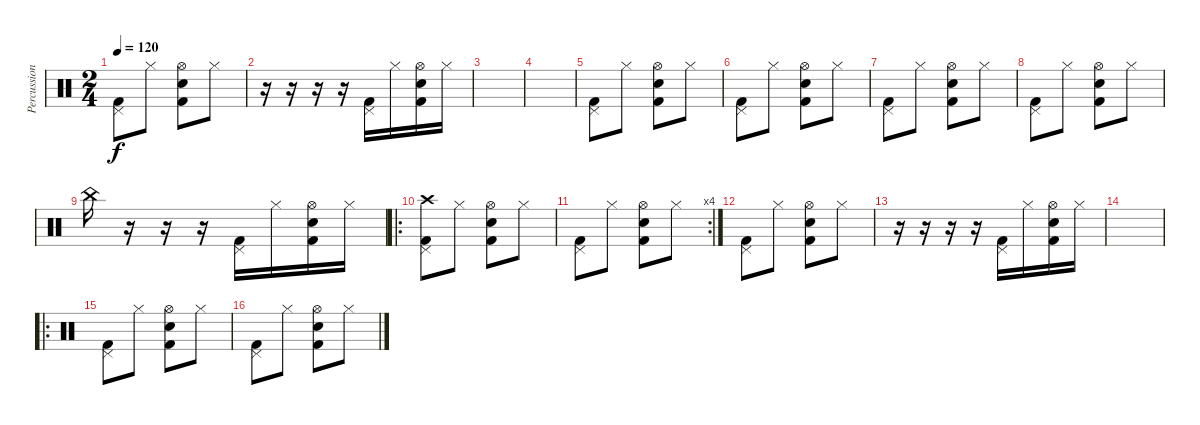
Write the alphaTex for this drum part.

\track ("Percussion" "Percussion") {instrument percussion}
\staff {score}
\articulation defaults
\ts (2 4)
\tempo 120
\clef neutral
\ks c
("Pedal Hi-Hat (hit)" "Kick (hit) 2").8{dy f} "Hi-Hat (closed)".8 ("Electric Snare (hit)" "Hi-Hat (open)" "Kick (hit) 2").8 "Hi-Hat (closed)".8 |
r.16 r.16 r.16 r.16 ("Pedal Hi-Hat (hit)" "Kick (hit) 2").16 "Hi-Hat (closed)".16 ("Electric Snare (hit)" "Hi-Hat (open)" "Kick (hit) 2").16 "Hi-Hat (closed)".16 |
|
|
("Pedal Hi-Hat (hit)" "Kick (hit) 2").8 "Hi-Hat (closed)".8 ("Electric Snare (hit)" "Hi-Hat (open)" "Kick (hit) 2").8 "Hi-Hat (closed)".8 |
("Pedal Hi-Hat (hit)" "Kick (hit) 2").8 "Hi-Hat (closed)".8 ("Electric Snare (hit)" "Hi-Hat (open)" "Kick (hit) 2").8 "Hi-Hat (closed)".8 |
("Pedal Hi-Hat (hit)" "Kick (hit) 2").8 "Hi-Hat (closed)".8 ("Electric Snare (hit)" "Hi-Hat (open)" "Kick (hit) 2").8 "Hi-Hat (closed)".8 |
("Pedal Hi-Hat (hit)" "Kick (hit) 2").8 "Hi-Hat (closed)".8 ("Electric Snare (hit)" "Hi-Hat (open)" "Kick (hit) 2").8 "Hi-Hat (closed)".8 |
"China (hit)".16 r.16 r.16 r.16 ("Pedal Hi-Hat (hit)" "Kick (hit) 2").16 "Hi-Hat (closed)".16 ("Electric Snare (hit)" "Hi-Hat (open)" "Kick (hit) 2").16 "Hi-Hat (closed)".16 |
\ro
("Crash high (hit)" "Pedal Hi-Hat (hit)" "Kick (hit) 2").8 "Hi-Hat (closed)".8 ("Electric Snare (hit)" "Hi-Hat (open)" "Kick (hit) 2").8 "Hi-Hat (closed)".8 |
\rc 4
("Pedal Hi-Hat (hit)" "Kick (hit) 2").8 "Hi-Hat (closed)".8 ("Electric Snare (hit)" "Hi-Hat (open)" "Kick (hit) 2").8 "Hi-Hat (closed)".8 |
("Pedal Hi-Hat (hit)" "Kick (hit) 2").8 "Hi-Hat (closed)".8 ("Electric Snare (hit)" "Hi-Hat (open)" "Kick (hit) 2").8 "Hi-Hat (closed)".8 |
r.16 r.16 r.16 r.16 ("Pedal Hi-Hat (hit)" "Kick (hit) 2").16 "Hi-Hat (closed)".16 ("Electric Snare (hit)" "Hi-Hat (open)" "Kick (hit) 2").16 "Hi-Hat (closed)".16 |
|
\ro
("Pedal Hi-Hat (hit)" "Kick (hit) 2").8 "Hi-Hat (closed)".8 ("Electric Snare (hit)" "Hi-Hat (open)" "Kick (hit) 2").8 "Hi-Hat (closed)".8 |
("Pedal Hi-Hat (hit)" "Kick (hit) 2").8 "Hi-Hat (closed)".8 ("Electric Snare (hit)" "Hi-Hat (open)" "Kick (hit) 2").8 "Hi-Hat (closed)".8
